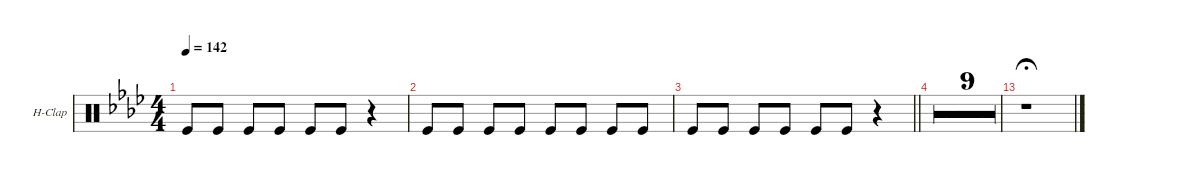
\defaultSystemsLayout 4
\hideDynamics
\bracketExtendMode groupsimilarinstruments
\firstSystemTrackNameOrientation horizontal
\otherSystemsTrackNameOrientation horizontal
\track ("Hand Clap" "H-Clap") {multiBarRest instrument percussion}
\staff {score}
\articulation defaults
\ts (4 4)
\tempo 142
\clef neutral
\ks ab "Kick (hit)".8{dy fff} "Kick (hit)".8 "Kick (hit)".8 "Kick (hit)".8 "Kick (hit)".8 "Kick (hit)".8
r.4 |
"Kick (hit)".8 "Kick (hit)".8 "Kick (hit)".8 "Kick (hit)".8 "Kick (hit)".8 "Kick (hit)".8 "Kick (hit)".8 "Kick (hit)".8 |
\barLineRight lightlight "Kick (hit)".8 "Kick (hit)".8 "Kick (hit)".8 "Kick (hit)".8 "Kick (hit)".8 "Kick (hit)".8
r.4 |
r.1 |
r.1 |
r.1 |
r.1 |
r.1 |
r.1 |
r.1 |
|
r.1 |
r.1{fermata (medium 0.5)}
